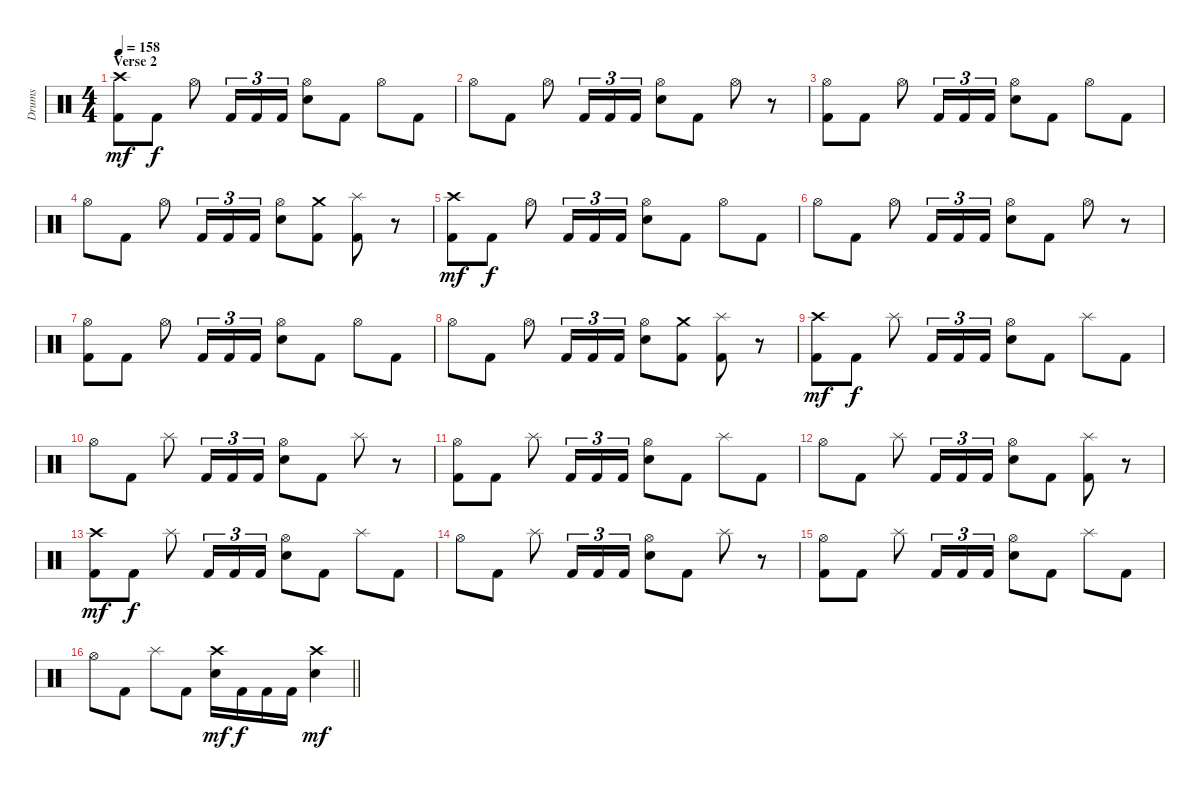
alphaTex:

\track ("Drums" "Drums") {instrument percussion}
\staff {score}
\articulation defaults
\ts (4 4)
\section ("" "Verse 2")
\tempo 158
\clef neutral
\ks c
("Crash high (hit)" "Kick (hit) 2").8{dy mf} "Kick (hit) 2".8{dy f} "Hi-Hat (open)".8 "Kick (hit) 2".16{tu (3 2)} "Kick (hit) 2".16{tu (3 2)} "Kick (hit) 2".16{tu (3 2)} ("Hi-Hat (open)" "Snare (hit) 2").8 "Kick (hit) 2".8 "Hi-Hat (open)".8 "Kick (hit) 2".8 |
"Hi-Hat (open)".8 "Kick (hit) 2".8 "Hi-Hat (open)".8 "Kick (hit) 2".16{tu (3 2)} "Kick (hit) 2".16{tu (3 2)} "Kick (hit) 2".16{tu (3 2)} ("Hi-Hat (open)" "Snare (hit) 2").8 "Kick (hit) 2".8 "Hi-Hat (open)".8 r.8 |
("Hi-Hat (open)" "Kick (hit) 2").8 "Kick (hit) 2".8 "Hi-Hat (open)".8 "Kick (hit) 2".16{tu (3 2)} "Kick (hit) 2".16{tu (3 2)} "Kick (hit) 2".16{tu (3 2)} ("Hi-Hat (open)" "Snare (hit) 2").8 "Kick (hit) 2".8 "Hi-Hat (open)".8 "Kick (hit) 2".8 |
"Hi-Hat (open)".8 "Kick (hit) 2".8 "Hi-Hat (open)".8 "Kick (hit) 2".16{tu (3 2)} "Kick (hit) 2".16{tu (3 2)} "Kick (hit) 2".16{tu (3 2)} ("Hi-Hat (open)" "Snare (hit) 2").8 ("Crash medium (hit)" "Kick (hit) 2").8 ("Splash (hit)" "Kick (hit) 2").8 r.8 |
("Crash high (hit)" "Kick (hit) 2").8{dy mf} "Kick (hit) 2".8{dy f} "Hi-Hat (open)".8 "Kick (hit) 2".16{tu (3 2)} "Kick (hit) 2".16{tu (3 2)} "Kick (hit) 2".16{tu (3 2)} ("Hi-Hat (open)" "Snare (hit) 2").8 "Kick (hit) 2".8 "Hi-Hat (open)".8 "Kick (hit) 2".8 |
"Hi-Hat (open)".8 "Kick (hit) 2".8 "Hi-Hat (open)".8 "Kick (hit) 2".16{tu (3 2)} "Kick (hit) 2".16{tu (3 2)} "Kick (hit) 2".16{tu (3 2)} ("Hi-Hat (open)" "Snare (hit) 2").8 "Kick (hit) 2".8 "Hi-Hat (open)".8 r.8 |
("Hi-Hat (open)" "Kick (hit) 2").8 "Kick (hit) 2".8 "Hi-Hat (open)".8 "Kick (hit) 2".16{tu (3 2)} "Kick (hit) 2".16{tu (3 2)} "Kick (hit) 2".16{tu (3 2)} ("Hi-Hat (open)" "Snare (hit) 2").8 "Kick (hit) 2".8 "Hi-Hat (open)".8 "Kick (hit) 2".8 |
"Hi-Hat (open)".8 "Kick (hit) 2".8 "Hi-Hat (open)".8 "Kick (hit) 2".16{tu (3 2)} "Kick (hit) 2".16{tu (3 2)} "Kick (hit) 2".16{tu (3 2)} ("Hi-Hat (open)" "Snare (hit) 2").8 ("Crash medium (hit)" "Kick (hit) 2").8 ("Splash (hit)" "Kick (hit) 2").8 r.8 |
("Crash high (hit)" "Kick (hit) 2").8{dy mf} "Kick (hit) 2".8{dy f} "Splash (hit)".8 "Kick (hit) 2".16{tu (3 2)} "Kick (hit) 2".16{tu (3 2)} "Kick (hit) 2".16{tu (3 2)} ("Hi-Hat (open)" "Snare (hit) 2").8 "Kick (hit) 2".8 "Splash (hit)".8 "Kick (hit) 2".8 |
"Hi-Hat (open)".8 "Kick (hit) 2".8 "Splash (hit)".8 "Kick (hit) 2".16{tu (3 2)} "Kick (hit) 2".16{tu (3 2)} "Kick (hit) 2".16{tu (3 2)} ("Hi-Hat (open)" "Snare (hit) 2").8 "Kick (hit) 2".8 "Splash (hit)".8 r.8 |
("Hi-Hat (open)" "Kick (hit) 2").8 "Kick (hit) 2".8 "Splash (hit)".8 "Kick (hit) 2".16{tu (3 2)} "Kick (hit) 2".16{tu (3 2)} "Kick (hit) 2".16{tu (3 2)} ("Hi-Hat (open)" "Snare (hit) 2").8 "Kick (hit) 2".8 "Splash (hit)".8 "Kick (hit) 2".8 |
"Hi-Hat (open)".8 "Kick (hit) 2".8 "Splash (hit)".8 "Kick (hit) 2".16{tu (3 2)} "Kick (hit) 2".16{tu (3 2)} "Kick (hit) 2".16{tu (3 2)} ("Hi-Hat (open)" "Snare (hit) 2").8 "Kick (hit) 2".8 ("Splash (hit)" "Kick (hit) 2").8 r.8 |
("Crash high (hit)" "Kick (hit) 2").8{dy mf} "Kick (hit) 2".8{dy f} "Splash (hit)".8 "Kick (hit) 2".16{tu (3 2)} "Kick (hit) 2".16{tu (3 2)} "Kick (hit) 2".16{tu (3 2)} ("Hi-Hat (open)" "Snare (hit) 2").8 "Kick (hit) 2".8 "Splash (hit)".8 "Kick (hit) 2".8 |
"Hi-Hat (open)".8 "Kick (hit) 2".8 "Splash (hit)".8 "Kick (hit) 2".16{tu (3 2)} "Kick (hit) 2".16{tu (3 2)} "Kick (hit) 2".16{tu (3 2)} ("Hi-Hat (open)" "Snare (hit) 2").8 "Kick (hit) 2".8 "Splash (hit)".8 r.8 |
("Hi-Hat (open)" "Kick (hit) 2").8 "Kick (hit) 2".8 "Splash (hit)".8 "Kick (hit) 2".16{tu (3 2)} "Kick (hit) 2".16{tu (3 2)} "Kick (hit) 2".16{tu (3 2)} ("Hi-Hat (open)" "Snare (hit) 2").8 "Kick (hit) 2".8 "Splash (hit)".8 "Kick (hit) 2".8 |
\barLineRight lightlight "Hi-Hat (open)".8 "Kick (hit) 2".8 "Splash (hit)".8 "Kick (hit) 2".8
("Crash high (hit)" "Snare (hit) 2").16{dy mf} "Kick (hit) 2".16{dy f} "Kick (hit) 2".16 "Kick (hit) 2".16 ("Crash high (hit)" "Snare (hit) 2").4{dy mf}
